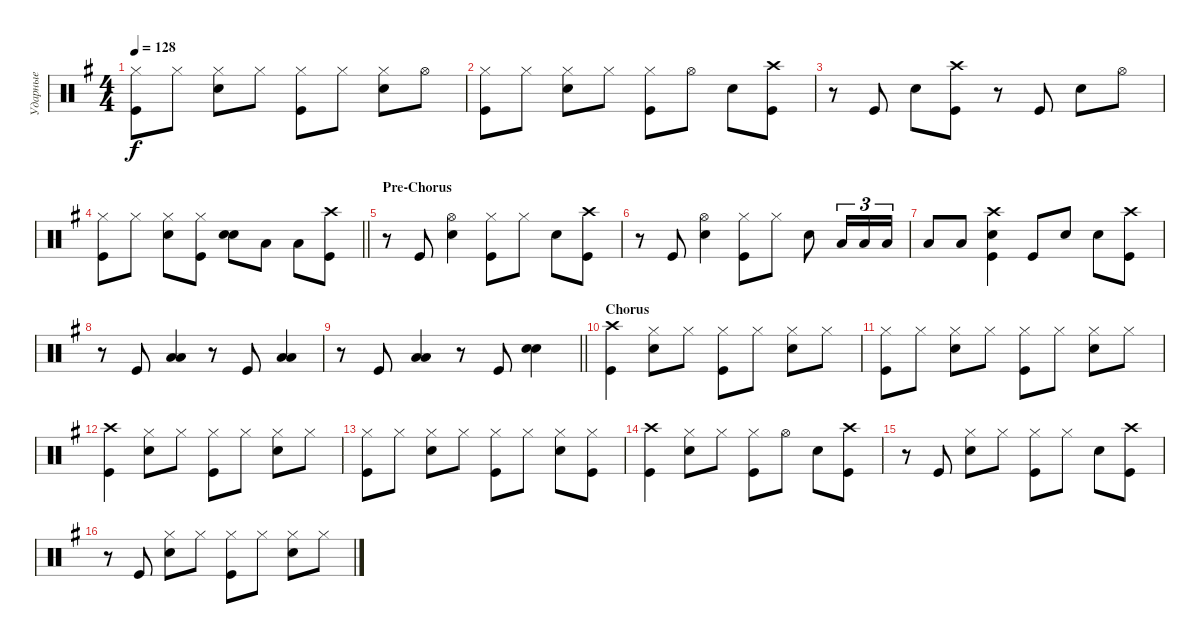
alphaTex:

\track ("Ударные" "Ударные") {instrument percussion}
\staff {score}
\articulation defaults
\ts (4 4)
\tempo 128
\clef neutral
\ks eminor
("Hi-Hat (closed)" "Kick (hit)").8{dy f} "Hi-Hat (closed)".8 ("Hi-Hat (closed)" "Snare (hit) 2").8 "Hi-Hat (closed)".8 ("Hi-Hat (closed)" "Kick (hit)").8 "Hi-Hat (closed)".8 ("Hi-Hat (closed)" "Snare (hit) 2").8 "Hi-Hat (open)".8 |
("Hi-Hat (closed)" "Kick (hit)").8 "Hi-Hat (closed)".8 ("Hi-Hat (closed)" "Snare (hit) 2").8 "Hi-Hat (closed)".8 ("Hi-Hat (closed)" "Kick (hit)").8 "Hi-Hat (open)".8 "Snare (hit) 2".8 ("Kick (hit)" "Crash high (hit)").8 |
r.8 "Kick (hit)".8 "Snare (hit) 2".8 ("Kick (hit)" "Crash high (hit)").8 r.8 "Kick (hit)".8 "Snare (hit) 2".8 "Hi-Hat (open)".8 |
\barLineRight lightlight
("Hi-Hat (closed)" "Kick (hit)").8 "Hi-Hat (closed)".8 ("Snare (hit) 2" "Hi-Hat (closed)").8 ("Hi-Hat (closed)" "Kick (hit)").8 ("Snare (hit) 2" "Snare (hit) 2").8{bd 240} "Low Tom (hit)".8 "Low Tom (hit)".8 ("Kick (hit)" "Crash high (hit)").8 |
\section ("" "Pre-Chorus")
r.8 "Kick (hit)".8 ("Snare (hit) 2" "Hi-Hat (open)").4 ("Kick (hit)" "Hi-Hat (closed)").8 "Hi-Hat (closed)".8 "Snare (hit) 2".8 ("Kick (hit)" "Crash high (hit)").8 |
r.8 "Kick (hit)".8 ("Snare (hit) 2" "Hi-Hat (open)").4 ("Kick (hit)" "Hi-Hat (closed)").8 "Hi-Hat (closed)".8 "Snare (hit) 2".8 "Low Floor Tom (hit)".16{tu (3 2)} "Low Floor Tom (hit)".16{tu (3 2)} "Low Floor Tom (hit)".16{tu (3 2)} |
"Low Floor Tom (hit)".8 "Low Floor Tom (hit)".8 ("Kick (hit)" "Crash high (hit)" "Snare (hit) 2").4 "Kick (hit)".8 "Snare (hit) 2".8 "Snare (hit) 2".8 ("Kick (hit)" "Crash high (hit)").8 |
r.8 "Kick (hit)".8 ("Low Tom (hit)" "Low Tom (hit)").4{bd 240} r.8 "Kick (hit)".8 ("Low Tom (hit)" "Low Tom (hit)").4{bd 240} |
\barLineRight lightlight
r.8 "Kick (hit)".8 ("Low Tom (hit)" "Low Tom (hit)").4{bd 240} r.8 "Kick (hit)".8 ("Snare (hit) 2" "Snare (hit) 2").4{bd 240} |
\section ("" "Chorus")
("Crash high (hit)" "Kick (hit)").4 ("Hi-Hat (closed)" "Snare (hit) 2").8 "Hi-Hat (closed)".8 ("Hi-Hat (closed)" "Kick (hit)").8 "Hi-Hat (closed)".8 ("Hi-Hat (closed)" "Snare (hit) 2").8 "Hi-Hat (closed)".8 |
("Hi-Hat (closed)" "Kick (hit)").8 "Hi-Hat (closed)".8 ("Hi-Hat (closed)" "Snare (hit) 2").8 "Hi-Hat (closed)".8 ("Hi-Hat (closed)" "Kick (hit)").8 "Hi-Hat (closed)".8 ("Hi-Hat (closed)" "Snare (hit) 2").8 "Hi-Hat (closed)".8 |
("Crash high (hit)" "Kick (hit)").4 ("Hi-Hat (closed)" "Snare (hit) 2").8 "Hi-Hat (closed)".8 ("Hi-Hat (closed)" "Kick (hit)").8 "Hi-Hat (closed)".8 ("Hi-Hat (closed)" "Snare (hit) 2").8 "Hi-Hat (closed)".8 |
("Hi-Hat (closed)" "Kick (hit)").8 "Hi-Hat (closed)".8 ("Hi-Hat (closed)" "Snare (hit) 2").8 "Hi-Hat (closed)".8 ("Hi-Hat (closed)" "Kick (hit)").8 "Hi-Hat (closed)".8 ("Hi-Hat (closed)" "Snare (hit) 2").8 ("Hi-Hat (closed)" "Kick (hit)").8 |
("Crash high (hit)" "Kick (hit)").4 ("Hi-Hat (closed)" "Snare (hit) 2").8 "Hi-Hat (closed)".8 ("Hi-Hat (closed)" "Kick (hit)").8 "Hi-Hat (open)".8 "Snare (hit) 2".8 ("Kick (hit)" "Crash high (hit)").8 |
r.8 "Kick (hit)".8 ("Hi-Hat (closed)" "Snare (hit) 2").8 "Hi-Hat (closed)".8 ("Hi-Hat (closed)" "Kick (hit)").8 "Hi-Hat (closed)".8 "Snare (hit) 2".8 ("Kick (hit)" "Crash high (hit)").8 |
r.8 "Kick (hit)".8 ("Hi-Hat (closed)" "Snare (hit) 2").8 "Hi-Hat (closed)".8 ("Hi-Hat (closed)" "Kick (hit)").8 "Hi-Hat (closed)".8 ("Hi-Hat (closed)" "Snare (hit) 2").8 "Hi-Hat (closed)".8
